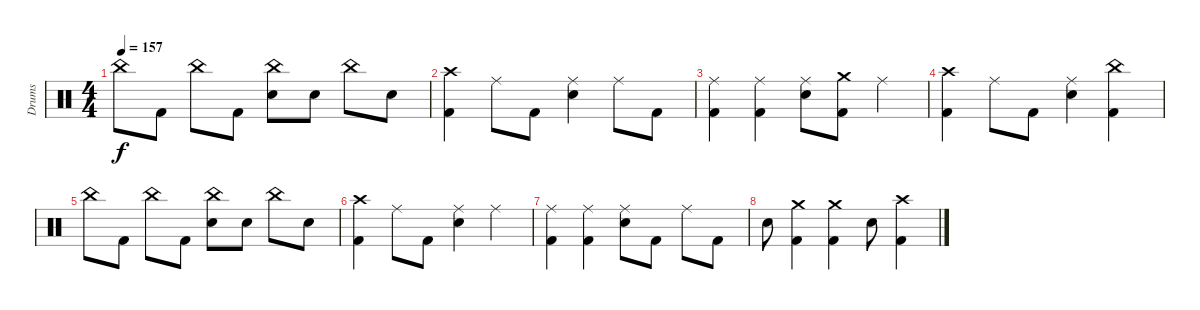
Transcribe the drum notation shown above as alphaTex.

\track ("Drums" "Drums") {instrument percussion}
\staff {score}
\articulation defaults
\ts (4 4)
\tempo 157
\clef neutral
\ks c "China (hit)".8{dy f} "Kick (hit) 2".8 "China (hit)".8 "Kick (hit) 2".8
("China (hit)" "Electric Snare (hit)").8 "Electric Snare (hit)".8 "China (hit)".8 "Electric Snare (hit)".8 |
("Crash high (hit)" "Kick (hit) 2").4 "Ride (middle)".8 "Kick (hit) 2".8 ("Ride (middle)" "Electric Snare (hit)").4 "Ride (middle)".8 "Kick (hit) 2".8 |
("Ride (middle)" "Kick (hit) 2").4 ("Ride (middle)" "Kick (hit) 2").4 ("Ride (middle)" "Electric Snare (hit)").8 ("Crash medium (hit)" "Kick (hit) 2").8 "Ride (middle)".4 |
("Crash high (hit)" "Kick (hit) 2").4 "Ride (middle)".8 "Kick (hit) 2".8 ("Ride (middle)" "Electric Snare (hit)").4 ("China (hit)" "Kick (hit) 2").4 |
"China (hit)".8 "Kick (hit) 2".8 "China (hit)".8 "Kick (hit) 2".8 ("China (hit)" "Electric Snare (hit)").8 "Electric Snare (hit)".8 "China (hit)".8 "Electric Snare (hit)".8 |
("Crash high (hit)" "Kick (hit) 2").4 "Ride (middle)".8 "Kick (hit) 2".8 ("Ride (middle)" "Electric Snare (hit)").4 "Ride (middle)".4 |
("Ride (middle)" "Kick (hit) 2").4 ("Ride (middle)" "Kick (hit) 2").4 ("Ride (middle)" "Electric Snare (hit)").8 "Kick (hit) 2".8 "Ride (middle)".8 "Kick (hit) 2".8 |
"Electric Snare (hit)".8 ("Crash medium (hit)" "Kick (hit) 2").4 ("Crash medium (hit)" "Kick (hit) 2").4 "Electric Snare (hit)".8 ("Crash high (hit)" "Kick (hit) 2").4
